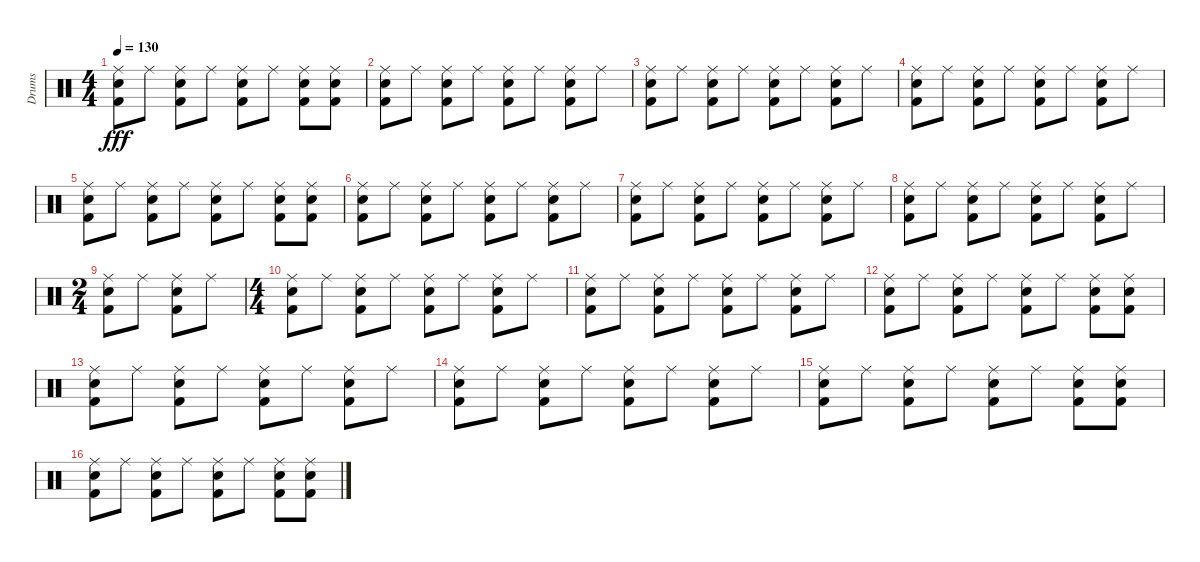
\track ("Drums" "Drums") {instrument percussion}
\staff {score}
\articulation defaults
\ts (4 4)
\tempo 130
\clef neutral
\ks c
("Kick (hit) 2" "Snare (hit) 2" "Ride (middle)").8{dy fff} "Ride (middle)".8 ("Kick (hit) 2" "Snare (hit) 2" "Ride (middle)").8 "Ride (middle)".8 ("Kick (hit) 2" "Snare (hit) 2" "Ride (middle)").8 "Ride (middle)".8 ("Kick (hit) 2" "Snare (hit) 2" "Ride (middle)").8 ("Kick (hit) 2" "Snare (hit) 2" "Ride (middle)").8 |
("Kick (hit) 2" "Snare (hit) 2" "Ride (middle)").8 "Ride (middle)".8 ("Kick (hit) 2" "Snare (hit) 2" "Ride (middle)").8 "Ride (middle)".8 ("Kick (hit) 2" "Snare (hit) 2" "Ride (middle)").8 "Ride (middle)".8 ("Kick (hit) 2" "Snare (hit) 2" "Ride (middle)").8 "Ride (middle)".8 |
("Kick (hit) 2" "Snare (hit) 2" "Ride (middle)").8 "Ride (middle)".8 ("Kick (hit) 2" "Snare (hit) 2" "Ride (middle)").8 "Ride (middle)".8 ("Kick (hit) 2" "Snare (hit) 2" "Ride (middle)").8 "Ride (middle)".8 ("Kick (hit) 2" "Snare (hit) 2" "Ride (middle)").8 "Ride (middle)".8 |
("Kick (hit) 2" "Snare (hit) 2" "Ride (middle)").8 "Ride (middle)".8 ("Kick (hit) 2" "Snare (hit) 2" "Ride (middle)").8 "Ride (middle)".8 ("Kick (hit) 2" "Snare (hit) 2" "Ride (middle)").8 "Ride (middle)".8 ("Kick (hit) 2" "Snare (hit) 2" "Ride (middle)").8 "Ride (middle)".8 |
("Kick (hit) 2" "Snare (hit) 2" "Ride (middle)").8 "Ride (middle)".8 ("Kick (hit) 2" "Snare (hit) 2" "Ride (middle)").8 "Ride (middle)".8 ("Kick (hit) 2" "Snare (hit) 2" "Ride (middle)").8 "Ride (middle)".8 ("Kick (hit) 2" "Snare (hit) 2" "Ride (middle)").8 ("Kick (hit) 2" "Snare (hit) 2" "Ride (middle)").8 |
("Kick (hit) 2" "Snare (hit) 2" "Ride (middle)").8 "Ride (middle)".8 ("Kick (hit) 2" "Snare (hit) 2" "Ride (middle)").8 "Ride (middle)".8 ("Kick (hit) 2" "Snare (hit) 2" "Ride (middle)").8 "Ride (middle)".8 ("Kick (hit) 2" "Snare (hit) 2" "Ride (middle)").8 "Ride (middle)".8 |
("Kick (hit) 2" "Snare (hit) 2" "Ride (middle)").8 "Ride (middle)".8 ("Kick (hit) 2" "Snare (hit) 2" "Ride (middle)").8 "Ride (middle)".8 ("Kick (hit) 2" "Snare (hit) 2" "Ride (middle)").8 "Ride (middle)".8 ("Kick (hit) 2" "Snare (hit) 2" "Ride (middle)").8 "Ride (middle)".8 |
("Kick (hit) 2" "Snare (hit) 2" "Ride (middle)").8 "Ride (middle)".8 ("Kick (hit) 2" "Snare (hit) 2" "Ride (middle)").8 "Ride (middle)".8 ("Kick (hit) 2" "Snare (hit) 2" "Ride (middle)").8 "Ride (middle)".8 ("Kick (hit) 2" "Snare (hit) 2" "Ride (middle)").8 "Ride (middle)".8 |
\ts (2 4)
("Kick (hit) 2" "Snare (hit) 2" "Ride (middle)").8 "Ride (middle)".8 ("Kick (hit) 2" "Snare (hit) 2" "Ride (middle)").8 "Ride (middle)".8 |
\ts (4 4)
("Kick (hit) 2" "Snare (hit) 2" "Ride (middle)").8 "Ride (middle)".8 ("Kick (hit) 2" "Snare (hit) 2" "Ride (middle)").8 "Ride (middle)".8 ("Kick (hit) 2" "Snare (hit) 2" "Ride (middle)").8 "Ride (middle)".8 ("Kick (hit) 2" "Snare (hit) 2" "Ride (middle)").8 "Ride (middle)".8 |
("Kick (hit) 2" "Snare (hit) 2" "Ride (middle)").8 "Ride (middle)".8 ("Kick (hit) 2" "Snare (hit) 2" "Ride (middle)").8 "Ride (middle)".8 ("Kick (hit) 2" "Snare (hit) 2" "Ride (middle)").8 "Ride (middle)".8 ("Kick (hit) 2" "Snare (hit) 2" "Ride (middle)").8 "Ride (middle)".8 |
("Kick (hit) 2" "Snare (hit) 2" "Ride (middle)").8 "Ride (middle)".8 ("Kick (hit) 2" "Snare (hit) 2" "Ride (middle)").8 "Ride (middle)".8 ("Kick (hit) 2" "Snare (hit) 2" "Ride (middle)").8 "Ride (middle)".8 ("Kick (hit) 2" "Snare (hit) 2" "Ride (middle)").8 ("Kick (hit) 2" "Snare (hit) 2" "Ride (middle)").8 |
("Kick (hit) 2" "Snare (hit) 2" "Ride (middle)").8 "Ride (middle)".8 ("Kick (hit) 2" "Snare (hit) 2" "Ride (middle)").8 "Ride (middle)".8 ("Kick (hit) 2" "Snare (hit) 2" "Ride (middle)").8 "Ride (middle)".8 ("Kick (hit) 2" "Snare (hit) 2" "Ride (middle)").8 "Ride (middle)".8 |
("Kick (hit) 2" "Snare (hit) 2" "Ride (middle)").8 "Ride (middle)".8 ("Kick (hit) 2" "Snare (hit) 2" "Ride (middle)").8 "Ride (middle)".8 ("Kick (hit) 2" "Snare (hit) 2" "Ride (middle)").8 "Ride (middle)".8 ("Kick (hit) 2" "Snare (hit) 2" "Ride (middle)").8 "Ride (middle)".8 |
("Kick (hit) 2" "Snare (hit) 2" "Ride (middle)").8 "Ride (middle)".8 ("Kick (hit) 2" "Snare (hit) 2" "Ride (middle)").8 "Ride (middle)".8 ("Kick (hit) 2" "Snare (hit) 2" "Ride (middle)").8 "Ride (middle)".8 ("Kick (hit) 2" "Snare (hit) 2" "Ride (middle)").8 ("Kick (hit) 2" "Snare (hit) 2" "Ride (middle)").8 |
("Kick (hit) 2" "Snare (hit) 2" "Ride (middle)").8 "Ride (middle)".8 ("Kick (hit) 2" "Snare (hit) 2" "Ride (middle)").8 "Ride (middle)".8 ("Kick (hit) 2" "Snare (hit) 2" "Ride (middle)").8 "Ride (middle)".8 ("Kick (hit) 2" "Snare (hit) 2" "Ride (middle)").8 ("Kick (hit) 2" "Snare (hit) 2" "Ride (middle)").8
